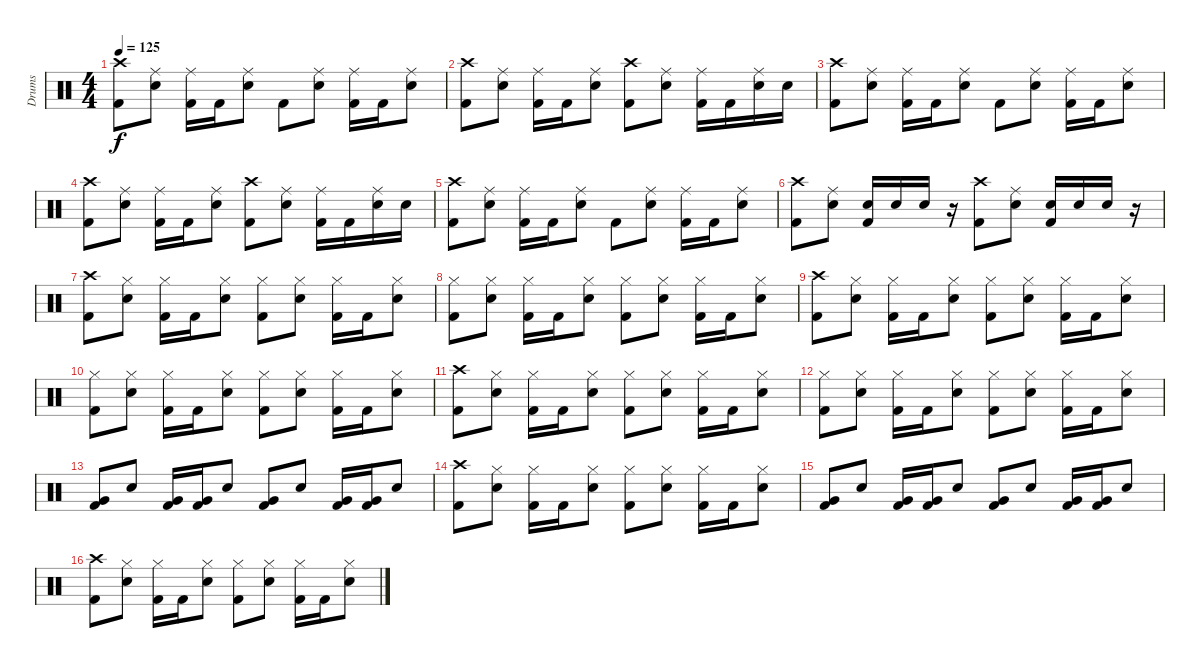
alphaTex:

\track ("Drums" "Drums") {instrument percussion}
\staff {score}
\articulation defaults
\ts (4 4)
\tempo 125
\clef neutral
\ks c
("Crash high (hit)" "Kick (hit) 2").8{dy f} ("Ride (middle)" "Electric Snare (hit)").8 ("Ride (middle)" "Kick (hit) 2").16 "Kick (hit) 2".16 ("Ride (middle)" "Electric Snare (hit)").8 "Kick (hit) 2".8 ("Ride (middle)" "Electric Snare (hit)").8 ("Ride (middle)" "Kick (hit) 2").16 "Kick (hit) 2".16 ("Ride (middle)" "Electric Snare (hit)").8 |
("Crash high (hit)" "Kick (hit) 2").8 ("Ride (middle)" "Electric Snare (hit)").8 ("Ride (middle)" "Kick (hit) 2").16 "Kick (hit) 2".16 ("Ride (middle)" "Electric Snare (hit)").8 ("Crash high (hit)" "Kick (hit) 2").8 ("Ride (middle)" "Electric Snare (hit)").8 ("Ride (middle)" "Kick (hit) 2").16 "Kick (hit) 2".16 ("Ride (middle)" "Electric Snare (hit)").16 "Electric Snare (hit)".16 |
("Crash high (hit)" "Kick (hit) 2").8 ("Ride (middle)" "Electric Snare (hit)").8 ("Ride (middle)" "Kick (hit) 2").16 "Kick (hit) 2".16 ("Ride (middle)" "Electric Snare (hit)").8 "Kick (hit) 2".8 ("Ride (middle)" "Electric Snare (hit)").8 ("Ride (middle)" "Kick (hit) 2").16 "Kick (hit) 2".16 ("Ride (middle)" "Electric Snare (hit)").8 |
("Crash high (hit)" "Kick (hit) 2").8 ("Ride (middle)" "Electric Snare (hit)").8 ("Ride (middle)" "Kick (hit) 2").16 "Kick (hit) 2".16 ("Ride (middle)" "Electric Snare (hit)").8 ("Crash high (hit)" "Kick (hit) 2").8 ("Ride (middle)" "Electric Snare (hit)").8 ("Ride (middle)" "Kick (hit) 2").16 "Kick (hit) 2".16 ("Ride (middle)" "Electric Snare (hit)").16 "Electric Snare (hit)".16 |
("Crash high (hit)" "Kick (hit) 2").8 ("Ride (middle)" "Electric Snare (hit)").8 ("Ride (middle)" "Kick (hit) 2").16 "Kick (hit) 2".16 ("Ride (middle)" "Electric Snare (hit)").8 "Kick (hit) 2".8 ("Ride (middle)" "Electric Snare (hit)").8 ("Ride (middle)" "Kick (hit) 2").16 "Kick (hit) 2".16 ("Ride (middle)" "Electric Snare (hit)").8 |
("Crash high (hit)" "Kick (hit) 2").8 ("Ride (middle)" "Electric Snare (hit)").8 ("Electric Snare (hit)" "Kick (hit) 2").16 "Electric Snare (hit)".16 "Electric Snare (hit)".16 r.16 ("Crash high (hit)" "Kick (hit) 2").8 ("Ride (middle)" "Electric Snare (hit)").8 ("Electric Snare (hit)" "Kick (hit) 2").16 "Electric Snare (hit)".16 "Electric Snare (hit)".16 r.16 |
("Crash high (hit)" "Kick (hit) 2").8 ("Hi-Hat (closed)" "Electric Snare (hit)").8 ("Hi-Hat (closed)" "Kick (hit) 2").16 "Kick (hit) 2".16 ("Hi-Hat (closed)" "Electric Snare (hit)").8 ("Hi-Hat (closed)" "Kick (hit) 2").8 ("Hi-Hat (closed)" "Electric Snare (hit)").8 ("Hi-Hat (closed)" "Kick (hit) 2").16 "Kick (hit) 2".16 ("Hi-Hat (closed)" "Electric Snare (hit)").8 |
("Hi-Hat (closed)" "Kick (hit) 2").8 ("Hi-Hat (closed)" "Electric Snare (hit)").8 ("Hi-Hat (closed)" "Kick (hit) 2").16 "Kick (hit) 2".16 ("Hi-Hat (closed)" "Electric Snare (hit)").8 ("Hi-Hat (closed)" "Kick (hit) 2").8 ("Hi-Hat (closed)" "Electric Snare (hit)").8 ("Hi-Hat (closed)" "Kick (hit) 2").16 "Kick (hit) 2".16 ("Hi-Hat (closed)" "Electric Snare (hit)").8 |
("Crash high (hit)" "Kick (hit) 2").8 ("Hi-Hat (closed)" "Electric Snare (hit)").8 ("Hi-Hat (closed)" "Kick (hit) 2").16 "Kick (hit) 2".16 ("Hi-Hat (closed)" "Electric Snare (hit)").8 ("Hi-Hat (closed)" "Kick (hit) 2").8 ("Hi-Hat (closed)" "Electric Snare (hit)").8 ("Hi-Hat (closed)" "Kick (hit) 2").16 "Kick (hit) 2".16 ("Hi-Hat (closed)" "Electric Snare (hit)").8 |
("Hi-Hat (closed)" "Kick (hit) 2").8 ("Hi-Hat (closed)" "Electric Snare (hit)").8 ("Hi-Hat (closed)" "Kick (hit) 2").16 "Kick (hit) 2".16 ("Hi-Hat (closed)" "Electric Snare (hit)").8 ("Hi-Hat (closed)" "Kick (hit) 2").8 ("Hi-Hat (closed)" "Electric Snare (hit)").8 ("Hi-Hat (closed)" "Kick (hit) 2").16 "Kick (hit) 2".16 ("Hi-Hat (closed)" "Electric Snare (hit)").8 |
("Crash high (hit)" "Kick (hit) 2").8 ("Hi-Hat (closed)" "Electric Snare (hit)").8 ("Hi-Hat (closed)" "Kick (hit) 2").16 "Kick (hit) 2".16 ("Hi-Hat (closed)" "Electric Snare (hit)").8 ("Hi-Hat (closed)" "Kick (hit) 2").8 ("Hi-Hat (closed)" "Electric Snare (hit)").8 ("Hi-Hat (closed)" "Kick (hit) 2").16 "Kick (hit) 2".16 ("Hi-Hat (closed)" "Electric Snare (hit)").8 |
("Hi-Hat (closed)" "Kick (hit) 2").8 ("Hi-Hat (closed)" "Electric Snare (hit)").8 ("Hi-Hat (closed)" "Kick (hit) 2").16 "Kick (hit) 2".16 ("Hi-Hat (closed)" "Electric Snare (hit)").8 ("Hi-Hat (closed)" "Kick (hit) 2").8 ("Hi-Hat (closed)" "Electric Snare (hit)").8 ("Hi-Hat (closed)" "Kick (hit) 2").16 "Kick (hit) 2".16 ("Hi-Hat (closed)" "Electric Snare (hit)").8 |
("Very Low Tom (hit)" "Kick (hit) 2").8 "Electric Snare (hit)".8 ("Very Low Tom (hit)" "Kick (hit) 2").16 ("Very Low Tom (hit)" "Kick (hit) 2").16 "Electric Snare (hit)".8 ("Very Low Tom (hit)" "Kick (hit) 2").8 "Electric Snare (hit)".8 ("Very Low Tom (hit)" "Kick (hit) 2").16 ("Very Low Tom (hit)" "Kick (hit) 2").16 "Electric Snare (hit)".8 |
("Crash high (hit)" "Kick (hit) 2").8 ("Hi-Hat (closed)" "Electric Snare (hit)").8 ("Hi-Hat (closed)" "Kick (hit) 2").16 "Kick (hit) 2".16 ("Hi-Hat (closed)" "Electric Snare (hit)").8 ("Hi-Hat (closed)" "Kick (hit) 2").8 ("Hi-Hat (closed)" "Electric Snare (hit)").8 ("Hi-Hat (closed)" "Kick (hit) 2").16 "Kick (hit) 2".16 ("Hi-Hat (closed)" "Electric Snare (hit)").8 |
("Very Low Tom (hit)" "Kick (hit) 2").8 "Electric Snare (hit)".8 ("Very Low Tom (hit)" "Kick (hit) 2").16 ("Very Low Tom (hit)" "Kick (hit) 2").16 "Electric Snare (hit)".8 ("Very Low Tom (hit)" "Kick (hit) 2").8 "Electric Snare (hit)".8 ("Very Low Tom (hit)" "Kick (hit) 2").16 ("Very Low Tom (hit)" "Kick (hit) 2").16 "Electric Snare (hit)".8 |
("Crash high (hit)" "Kick (hit) 2").8 ("Hi-Hat (closed)" "Electric Snare (hit)").8 ("Hi-Hat (closed)" "Kick (hit) 2").16 "Kick (hit) 2".16 ("Hi-Hat (closed)" "Electric Snare (hit)").8 ("Hi-Hat (closed)" "Kick (hit) 2").8 ("Hi-Hat (closed)" "Electric Snare (hit)").8 ("Hi-Hat (closed)" "Kick (hit) 2").16 "Kick (hit) 2".16 ("Hi-Hat (closed)" "Electric Snare (hit)").8
